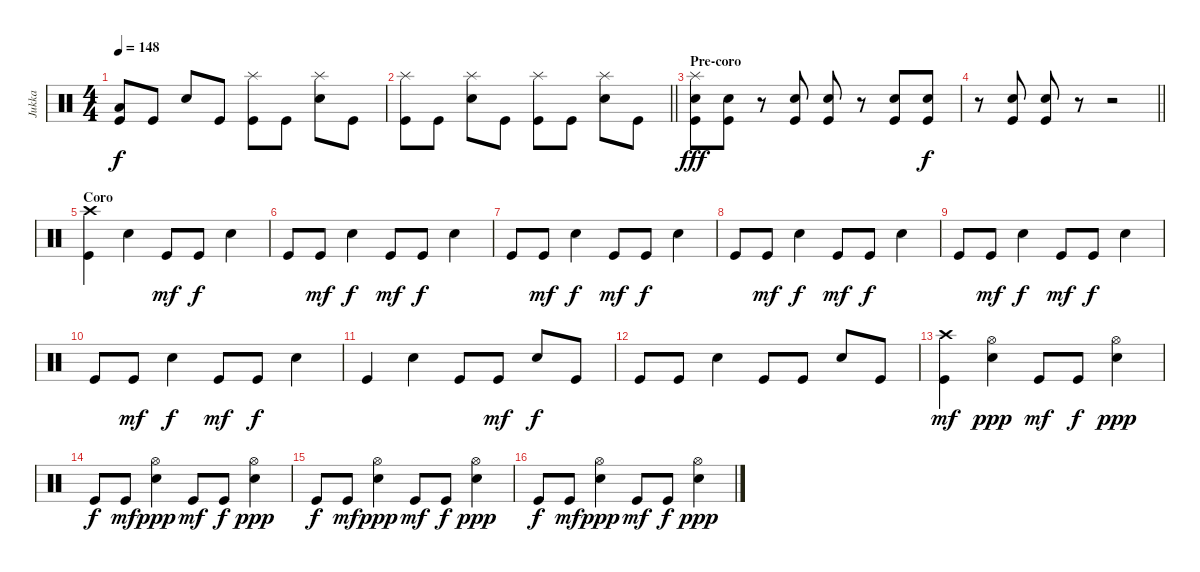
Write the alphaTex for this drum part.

\track ("Jukka" "Jukka") {instrument percussion}
\staff {score}
\articulation defaults
\ts (4 4)
\tempo 148
\clef neutral
\ks c
("Kick (hit)" "Low Floor Tom (hit)").8{dy f} "Kick (hit)".8 "Snare (hit) 2".8 "Kick (hit)".8 ("Kick (hit)" "Splash (hit)").8 "Kick (hit)".8 ("Snare (hit) 2" "Splash (hit)").8 "Kick (hit)".8 |
\barLineRight lightlight
("Kick (hit)" "Splash (hit)").8 "Kick (hit)".8 ("Snare (hit) 2" "Splash (hit)").8 "Kick (hit)".8 ("Kick (hit)" "Splash (hit)").8 "Kick (hit)".8 ("Snare (hit) 2" "Splash (hit)").8 "Kick (hit)".8 |
\section ("" "Pre-coro")
("Kick (hit)" "Snare (hit) 2" "Splash (hit)").8{dy fff} ("Kick (hit)" "Snare (hit) 2").8 r.8 ("Kick (hit)" "Snare (hit) 2").8 ("Kick (hit)" "Snare (hit) 2").8 r.8 ("Kick (hit)" "Snare (hit) 2").8 ("Kick (hit)" "Snare (hit) 2").8{dy f} |
\barLineRight lightlight
r.8 ("Kick (hit)" "Snare (hit) 2").8 ("Kick (hit)" "Snare (hit) 2").8 r.8 r.2 |
\section ("" "Coro")
("Kick (hit)" "Crash high (hit)").4{balance 8} "Snare (hit) 2".4 "Kick (hit)".8{dy mf} "Kick (hit)".8{dy f} "Snare (hit) 2".4 |
"Kick (hit)".8 "Kick (hit)".8{dy mf} "Snare (hit) 2".4{dy f} "Kick (hit)".8{dy mf} "Kick (hit)".8{dy f} "Snare (hit) 2".4 |
"Kick (hit)".8 "Kick (hit)".8{dy mf} "Snare (hit) 2".4{dy f} "Kick (hit)".8{dy mf} "Kick (hit)".8{dy f} "Snare (hit) 2".4 |
"Kick (hit)".8 "Kick (hit)".8{dy mf} "Snare (hit) 2".4{dy f} "Kick (hit)".8{dy mf} "Kick (hit)".8{dy f} "Snare (hit) 2".4 |
"Kick (hit)".8 "Kick (hit)".8{dy mf} "Snare (hit) 2".4{dy f} "Kick (hit)".8{dy mf} "Kick (hit)".8{dy f} "Snare (hit) 2".4 |
"Kick (hit)".8 "Kick (hit)".8{dy mf} "Snare (hit) 2".4{dy f} "Kick (hit)".8{dy mf} "Kick (hit)".8{dy f} "Snare (hit) 2".4 |
"Kick (hit)".4 "Snare (hit) 2".4 "Kick (hit)".8 "Kick (hit)".8{dy mf} "Snare (hit) 2".8{dy f} "Kick (hit)".8 |
"Kick (hit)".8 "Kick (hit)".8 "Snare (hit) 2".4 "Kick (hit)".8 "Kick (hit)".8 "Snare (hit) 2".8 "Kick (hit)".8 |
("Kick (hit)" "Crash high (hit)").4{dy mf} ("Snare (hit) 2" "Hi-Hat (open)").4{dy ppp} "Kick (hit)".8{dy mf} "Kick (hit)".8{dy f} ("Snare (hit) 2" "Hi-Hat (open)").4{dy ppp} |
"Kick (hit)".8{dy f} "Kick (hit)".8{dy mf} ("Snare (hit) 2" "Hi-Hat (open)").4{dy ppp} "Kick (hit)".8{dy mf} "Kick (hit)".8{dy f} ("Snare (hit) 2" "Hi-Hat (open)").4{dy ppp} |
"Kick (hit)".8{dy f} "Kick (hit)".8{dy mf} ("Snare (hit) 2" "Hi-Hat (open)").4{dy ppp} "Kick (hit)".8{dy mf} "Kick (hit)".8{dy f} ("Snare (hit) 2" "Hi-Hat (open)").4{dy ppp} |
"Kick (hit)".8{dy f} "Kick (hit)".8{dy mf} ("Snare (hit) 2" "Hi-Hat (open)").4{dy ppp} "Kick (hit)".8{dy mf} "Kick (hit)".8{dy f} ("Snare (hit) 2" "Hi-Hat (open)").4{dy ppp}
